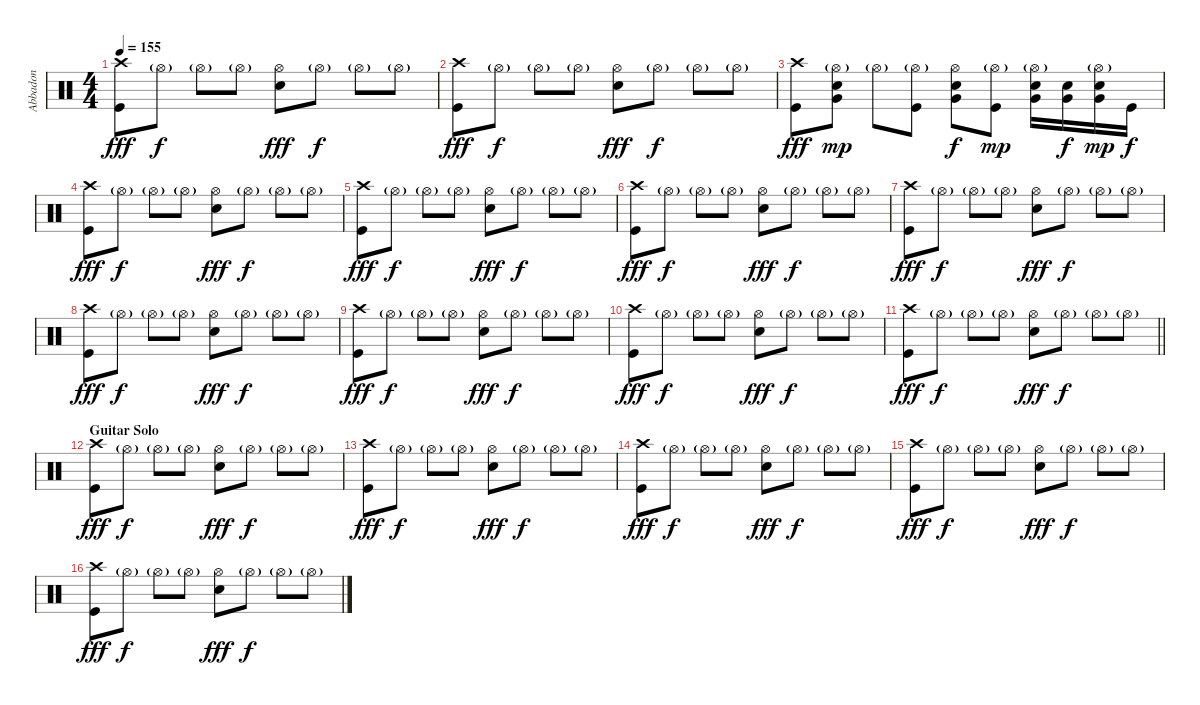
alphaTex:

\track ("Abbadon" "Abbadon") {instrument percussion}
\staff {score}
\articulation defaults
\ts (4 4)
\tempo 155
\clef neutral
\ks c
("Crash high (hit)" "Kick (hit)").8{dy fff} "Hi-Hat (open)"{g}.8{dy f} "Hi-Hat (open)"{g}.8 "Hi-Hat (open)"{g}.8 ("Hi-Hat (open)" "Electric Snare (hit)").8{dy fff} "Hi-Hat (open)"{g}.8{dy f} "Hi-Hat (open)"{g}.8 "Hi-Hat (open)"{g}.8 |
("Crash high (hit)" "Kick (hit)").8{dy fff} "Hi-Hat (open)"{g}.8{dy f} "Hi-Hat (open)"{g}.8 "Hi-Hat (open)"{g}.8 ("Hi-Hat (open)" "Electric Snare (hit)").8{dy fff} "Hi-Hat (open)"{g}.8{dy f} "Hi-Hat (open)"{g}.8 "Hi-Hat (open)"{g}.8 |
("Crash high (hit)" "Kick (hit)").8{dy fff} ("Hi-Hat (open)"{g} "Electric Snare (hit)" "Very Low Tom (hit)").8{dy mp} "Hi-Hat (open)"{g}.8 ("Hi-Hat (open)"{g} "Kick (hit)").8 ("Hi-Hat (open)" "Electric Snare (hit)" "Very Low Tom (hit)").8{dy f} ("Hi-Hat (open)"{g} "Kick (hit)").8{dy mp} ("Hi-Hat (open)"{g} "Electric Snare (hit)" "Very Low Tom (hit)").16 ("Electric Snare (hit)" "Very Low Tom (hit)").16{dy f} ("Hi-Hat (open)"{g} "Electric Snare (hit)" "Very Low Tom (hit)").16{dy mp} "Kick (hit)".16{dy f} |
("Crash high (hit)" "Kick (hit)").8{dy fff} "Hi-Hat (open)"{g}.8{dy f} "Hi-Hat (open)"{g}.8 "Hi-Hat (open)"{g}.8 ("Hi-Hat (open)" "Electric Snare (hit)").8{dy fff} "Hi-Hat (open)"{g}.8{dy f} "Hi-Hat (open)"{g}.8 "Hi-Hat (open)"{g}.8 |
("Crash high (hit)" "Kick (hit)").8{dy fff} "Hi-Hat (open)"{g}.8{dy f} "Hi-Hat (open)"{g}.8 "Hi-Hat (open)"{g}.8 ("Hi-Hat (open)" "Electric Snare (hit)").8{dy fff} "Hi-Hat (open)"{g}.8{dy f} "Hi-Hat (open)"{g}.8 "Hi-Hat (open)"{g}.8 |
("Crash high (hit)" "Kick (hit)").8{dy fff} "Hi-Hat (open)"{g}.8{dy f} "Hi-Hat (open)"{g}.8 "Hi-Hat (open)"{g}.8 ("Hi-Hat (open)" "Electric Snare (hit)").8{dy fff} "Hi-Hat (open)"{g}.8{dy f} "Hi-Hat (open)"{g}.8 "Hi-Hat (open)"{g}.8 |
("Crash high (hit)" "Kick (hit)").8{dy fff} "Hi-Hat (open)"{g}.8{dy f} "Hi-Hat (open)"{g}.8 "Hi-Hat (open)"{g}.8 ("Hi-Hat (open)" "Electric Snare (hit)").8{dy fff} "Hi-Hat (open)"{g}.8{dy f} "Hi-Hat (open)"{g}.8 "Hi-Hat (open)"{g}.8 |
("Crash high (hit)" "Kick (hit)").8{dy fff} "Hi-Hat (open)"{g}.8{dy f} "Hi-Hat (open)"{g}.8 "Hi-Hat (open)"{g}.8 ("Hi-Hat (open)" "Electric Snare (hit)").8{dy fff} "Hi-Hat (open)"{g}.8{dy f} "Hi-Hat (open)"{g}.8 "Hi-Hat (open)"{g}.8 |
("Crash high (hit)" "Kick (hit)").8{dy fff} "Hi-Hat (open)"{g}.8{dy f} "Hi-Hat (open)"{g}.8 "Hi-Hat (open)"{g}.8 ("Hi-Hat (open)" "Electric Snare (hit)").8{dy fff} "Hi-Hat (open)"{g}.8{dy f} "Hi-Hat (open)"{g}.8 "Hi-Hat (open)"{g}.8 |
("Crash high (hit)" "Kick (hit)").8{dy fff} "Hi-Hat (open)"{g}.8{dy f} "Hi-Hat (open)"{g}.8 "Hi-Hat (open)"{g}.8 ("Hi-Hat (open)" "Electric Snare (hit)").8{dy fff} "Hi-Hat (open)"{g}.8{dy f} "Hi-Hat (open)"{g}.8 "Hi-Hat (open)"{g}.8 |
\barLineRight lightlight
("Crash high (hit)" "Kick (hit)").8{dy fff} "Hi-Hat (open)"{g}.8{dy f} "Hi-Hat (open)"{g}.8 "Hi-Hat (open)"{g}.8 ("Hi-Hat (open)" "Electric Snare (hit)").8{dy fff} "Hi-Hat (open)"{g}.8{dy f} "Hi-Hat (open)"{g}.8 "Hi-Hat (open)"{g}.8 |
\section ("" "Guitar Solo")
("Crash high (hit)" "Kick (hit)").8{dy fff} "Hi-Hat (open)"{g}.8{dy f} "Hi-Hat (open)"{g}.8 "Hi-Hat (open)"{g}.8 ("Hi-Hat (open)" "Electric Snare (hit)").8{dy fff} "Hi-Hat (open)"{g}.8{dy f} "Hi-Hat (open)"{g}.8 "Hi-Hat (open)"{g}.8 |
("Crash high (hit)" "Kick (hit)").8{dy fff} "Hi-Hat (open)"{g}.8{dy f} "Hi-Hat (open)"{g}.8 "Hi-Hat (open)"{g}.8 ("Hi-Hat (open)" "Electric Snare (hit)").8{dy fff} "Hi-Hat (open)"{g}.8{dy f} "Hi-Hat (open)"{g}.8 "Hi-Hat (open)"{g}.8 |
("Crash high (hit)" "Kick (hit)").8{dy fff} "Hi-Hat (open)"{g}.8{dy f} "Hi-Hat (open)"{g}.8 "Hi-Hat (open)"{g}.8 ("Hi-Hat (open)" "Electric Snare (hit)").8{dy fff} "Hi-Hat (open)"{g}.8{dy f} "Hi-Hat (open)"{g}.8 "Hi-Hat (open)"{g}.8 |
("Crash high (hit)" "Kick (hit)").8{dy fff} "Hi-Hat (open)"{g}.8{dy f} "Hi-Hat (open)"{g}.8 "Hi-Hat (open)"{g}.8 ("Hi-Hat (open)" "Electric Snare (hit)").8{dy fff} "Hi-Hat (open)"{g}.8{dy f} "Hi-Hat (open)"{g}.8 "Hi-Hat (open)"{g}.8 |
("Crash high (hit)" "Kick (hit)").8{dy fff} "Hi-Hat (open)"{g}.8{dy f} "Hi-Hat (open)"{g}.8 "Hi-Hat (open)"{g}.8 ("Hi-Hat (open)" "Electric Snare (hit)").8{dy fff} "Hi-Hat (open)"{g}.8{dy f} "Hi-Hat (open)"{g}.8 "Hi-Hat (open)"{g}.8
